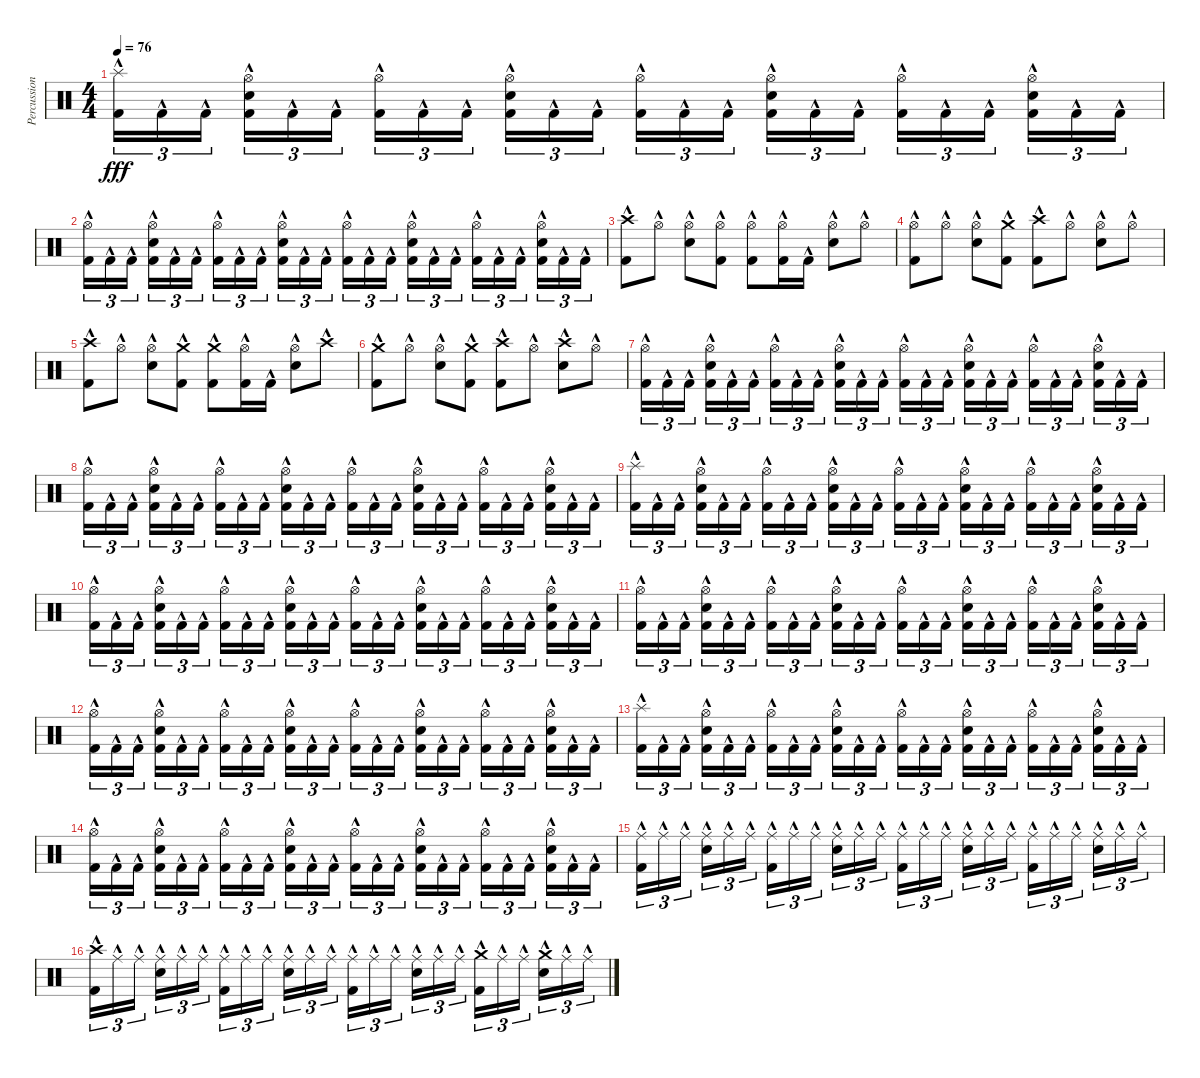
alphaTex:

\track ("Percussion" "Percussion") {instrument percussion}
\staff {score}
\articulation defaults
\ts (4 4)
\tempo 76
\clef neutral
\ks c
("Kick (hit) 2"{hac} "Splash (hit)"{hac}).16{tu (3 2) dy fff} "Kick (hit) 2"{hac}.16{tu (3 2)} "Kick (hit) 2"{hac}.16{tu (3 2) beam splitsecondary} ("Kick (hit) 2"{hac} "Electric Snare (hit)"{hac} "Hi-Hat (open)"{hac}).16{tu (3 2)} "Kick (hit) 2"{hac}.16{tu (3 2)} "Kick (hit) 2"{hac}.16{tu (3 2)} ("Hi-Hat (open)"{hac} "Kick (hit) 2"{hac}).16{tu (3 2)} "Kick (hit) 2"{hac}.16{tu (3 2)} "Kick (hit) 2"{hac}.16{tu (3 2) beam splitsecondary} ("Kick (hit) 2"{hac} "Electric Snare (hit)"{hac} "Hi-Hat (open)"{hac}).16{tu (3 2)} "Kick (hit) 2"{hac}.16{tu (3 2)} "Kick (hit) 2"{hac}.16{tu (3 2)} ("Kick (hit) 2"{hac} "Hi-Hat (open)"{hac}).16{tu (3 2)} "Kick (hit) 2"{hac}.16{tu (3 2)} "Kick (hit) 2"{hac}.16{tu (3 2) beam splitsecondary} ("Kick (hit) 2"{hac} "Electric Snare (hit)"{hac} "Hi-Hat (open)"{hac}).16{tu (3 2)} "Kick (hit) 2"{hac}.16{tu (3 2)} "Kick (hit) 2"{hac}.16{tu (3 2)} ("Hi-Hat (open)"{hac} "Kick (hit) 2"{hac}).16{tu (3 2)} "Kick (hit) 2"{hac}.16{tu (3 2)} "Kick (hit) 2"{hac}.16{tu (3 2) beam splitsecondary} ("Kick (hit) 2"{hac} "Electric Snare (hit)"{hac} "Hi-Hat (open)"{hac}).16{tu (3 2)} "Kick (hit) 2"{hac}.16{tu (3 2)} "Kick (hit) 2"{hac}.16{tu (3 2)} |
("Kick (hit) 2"{hac} "Hi-Hat (open)"{hac}).16{tu (3 2)} "Kick (hit) 2"{hac}.16{tu (3 2)} "Kick (hit) 2"{hac}.16{tu (3 2) beam splitsecondary} ("Kick (hit) 2"{hac} "Electric Snare (hit)"{hac} "Hi-Hat (open)"{hac}).16{tu (3 2)} "Kick (hit) 2"{hac}.16{tu (3 2)} "Kick (hit) 2"{hac}.16{tu (3 2)} ("Hi-Hat (open)"{hac} "Kick (hit) 2"{hac}).16{tu (3 2)} "Kick (hit) 2"{hac}.16{tu (3 2)} "Kick (hit) 2"{hac}.16{tu (3 2) beam splitsecondary} ("Kick (hit) 2"{hac} "Electric Snare (hit)"{hac} "Hi-Hat (open)"{hac}).16{tu (3 2)} "Kick (hit) 2"{hac}.16{tu (3 2)} "Kick (hit) 2"{hac}.16{tu (3 2)} ("Kick (hit) 2"{hac} "Hi-Hat (open)"{hac}).16{tu (3 2)} "Kick (hit) 2"{hac}.16{tu (3 2)} "Kick (hit) 2"{hac}.16{tu (3 2) beam splitsecondary} ("Kick (hit) 2"{hac} "Electric Snare (hit)"{hac} "Hi-Hat (open)"{hac}).16{tu (3 2)} "Kick (hit) 2"{hac}.16{tu (3 2)} "Kick (hit) 2"{hac}.16{tu (3 2)} ("Hi-Hat (open)"{hac} "Kick (hit) 2"{hac}).16{tu (3 2)} "Kick (hit) 2"{hac}.16{tu (3 2)} "Kick (hit) 2"{hac}.16{tu (3 2) beam splitsecondary} ("Kick (hit) 2"{hac} "Electric Snare (hit)"{hac} "Hi-Hat (open)"{hac}).16{tu (3 2)} "Kick (hit) 2"{hac}.16{tu (3 2)} "Kick (hit) 2"{hac}.16{tu (3 2)} |
("Crash high (hit)"{hac} "Kick (hit) 2"{hac}).8 "Hi-Hat (open)"{hac}.8 ("Hi-Hat (open)"{hac} "Electric Snare (hit)"{hac}).8 ("Hi-Hat (open)"{hac} "Kick (hit) 2"{hac}).8 ("Hi-Hat (open)"{hac} "Kick (hit) 2"{hac}).8 ("Hi-Hat (open)"{hac} "Kick (hit) 2"{hac}).16 "Kick (hit) 2"{hac}.16 ("Hi-Hat (open)"{hac} "Electric Snare (hit)"{hac}).8 "Hi-Hat (open)"{hac}.8 |
("Hi-Hat (open)"{hac} "Kick (hit) 2"{hac}).8 "Hi-Hat (open)"{hac}.8 ("Hi-Hat (open)"{hac} "Electric Snare (hit)"{hac}).8 ("Crash medium (hit)"{hac} "Kick (hit) 2"{hac}).8 ("Kick (hit) 2"{hac} "Crash high (hit)"{hac}).8 "Hi-Hat (open)"{hac}.8 ("Hi-Hat (open)"{hac} "Electric Snare (hit)"{hac}).8 "Hi-Hat (open)"{hac}.8 |
("Crash high (hit)"{hac} "Kick (hit) 2"{hac}).8 "Hi-Hat (open)"{hac}.8 ("Hi-Hat (open)"{hac} "Electric Snare (hit)"{hac}).8 ("Crash medium (hit)"{hac} "Kick (hit) 2"{hac}).8 ("Crash medium (hit)"{hac} "Kick (hit) 2"{hac}).8 ("Hi-Hat (open)"{hac} "Kick (hit) 2"{hac}).16 "Kick (hit) 2"{hac}.16 ("Hi-Hat (open)"{hac} "Electric Snare (hit)"{hac}).8 "Crash high (hit)"{hac}.8 |
("Crash medium (hit)"{hac} "Kick (hit) 2"{hac}).8 "Hi-Hat (open)"{hac}.8 ("Hi-Hat (open)"{hac} "Electric Snare (hit)"{hac}).8 ("Crash medium (hit)"{hac} "Kick (hit) 2"{hac}).8 ("Kick (hit) 2"{hac} "Crash high (hit)"{hac}).8 "Hi-Hat (open)"{hac}.8 ("Crash high (hit)"{hac} "Electric Snare (hit)"{hac}).8 "Hi-Hat (open)"{hac}.8 |
("Kick (hit) 2"{hac} "Hi-Hat (open)"{hac}).16{tu (3 2)} "Kick (hit) 2"{hac}.16{tu (3 2)} "Kick (hit) 2"{hac}.16{tu (3 2) beam splitsecondary} ("Kick (hit) 2"{hac} "Electric Snare (hit)"{hac} "Hi-Hat (open)"{hac}).16{tu (3 2)} "Kick (hit) 2"{hac}.16{tu (3 2)} "Kick (hit) 2"{hac}.16{tu (3 2)} ("Hi-Hat (open)"{hac} "Kick (hit) 2"{hac}).16{tu (3 2)} "Kick (hit) 2"{hac}.16{tu (3 2)} "Kick (hit) 2"{hac}.16{tu (3 2) beam splitsecondary} ("Kick (hit) 2"{hac} "Electric Snare (hit)"{hac} "Hi-Hat (open)"{hac}).16{tu (3 2)} "Kick (hit) 2"{hac}.16{tu (3 2)} "Kick (hit) 2"{hac}.16{tu (3 2)} ("Kick (hit) 2"{hac} "Hi-Hat (open)"{hac}).16{tu (3 2)} "Kick (hit) 2"{hac}.16{tu (3 2)} "Kick (hit) 2"{hac}.16{tu (3 2) beam splitsecondary} ("Kick (hit) 2"{hac} "Electric Snare (hit)"{hac} "Hi-Hat (open)"{hac}).16{tu (3 2)} "Kick (hit) 2"{hac}.16{tu (3 2)} "Kick (hit) 2"{hac}.16{tu (3 2)} ("Hi-Hat (open)"{hac} "Kick (hit) 2"{hac}).16{tu (3 2)} "Kick (hit) 2"{hac}.16{tu (3 2)} "Kick (hit) 2"{hac}.16{tu (3 2) beam splitsecondary} ("Kick (hit) 2"{hac} "Electric Snare (hit)"{hac} "Hi-Hat (open)"{hac}).16{tu (3 2)} "Kick (hit) 2"{hac}.16{tu (3 2)} "Kick (hit) 2"{hac}.16{tu (3 2)} |
("Kick (hit) 2"{hac} "Hi-Hat (open)"{hac}).16{tu (3 2)} "Kick (hit) 2"{hac}.16{tu (3 2)} "Kick (hit) 2"{hac}.16{tu (3 2) beam splitsecondary} ("Kick (hit) 2"{hac} "Electric Snare (hit)"{hac} "Hi-Hat (open)"{hac}).16{tu (3 2)} "Kick (hit) 2"{hac}.16{tu (3 2)} "Kick (hit) 2"{hac}.16{tu (3 2)} ("Hi-Hat (open)"{hac} "Kick (hit) 2"{hac}).16{tu (3 2)} "Kick (hit) 2"{hac}.16{tu (3 2)} "Kick (hit) 2"{hac}.16{tu (3 2) beam splitsecondary} ("Kick (hit) 2"{hac} "Electric Snare (hit)"{hac} "Hi-Hat (open)"{hac}).16{tu (3 2)} "Kick (hit) 2"{hac}.16{tu (3 2)} "Kick (hit) 2"{hac}.16{tu (3 2)} ("Kick (hit) 2"{hac} "Hi-Hat (open)"{hac}).16{tu (3 2)} "Kick (hit) 2"{hac}.16{tu (3 2)} "Kick (hit) 2"{hac}.16{tu (3 2) beam splitsecondary} ("Kick (hit) 2"{hac} "Electric Snare (hit)"{hac} "Hi-Hat (open)"{hac}).16{tu (3 2)} "Kick (hit) 2"{hac}.16{tu (3 2)} "Kick (hit) 2"{hac}.16{tu (3 2)} ("Hi-Hat (open)"{hac} "Kick (hit) 2"{hac}).16{tu (3 2)} "Kick (hit) 2"{hac}.16{tu (3 2)} "Kick (hit) 2"{hac}.16{tu (3 2) beam splitsecondary} ("Kick (hit) 2"{hac} "Electric Snare (hit)"{hac} "Hi-Hat (open)"{hac}).16{tu (3 2)} "Kick (hit) 2"{hac}.16{tu (3 2)} "Kick (hit) 2"{hac}.16{tu (3 2)} |
("Kick (hit) 2"{hac} "Splash (hit)"{hac}).16{tu (3 2)} "Kick (hit) 2"{hac}.16{tu (3 2)} "Kick (hit) 2"{hac}.16{tu (3 2) beam splitsecondary} ("Kick (hit) 2"{hac} "Electric Snare (hit)"{hac} "Hi-Hat (open)"{hac}).16{tu (3 2)} "Kick (hit) 2"{hac}.16{tu (3 2)} "Kick (hit) 2"{hac}.16{tu (3 2)} ("Hi-Hat (open)"{hac} "Kick (hit) 2"{hac}).16{tu (3 2)} "Kick (hit) 2"{hac}.16{tu (3 2)} "Kick (hit) 2"{hac}.16{tu (3 2) beam splitsecondary} ("Kick (hit) 2"{hac} "Electric Snare (hit)"{hac} "Hi-Hat (open)"{hac}).16{tu (3 2)} "Kick (hit) 2"{hac}.16{tu (3 2)} "Kick (hit) 2"{hac}.16{tu (3 2)} ("Kick (hit) 2"{hac} "Hi-Hat (open)"{hac}).16{tu (3 2)} "Kick (hit) 2"{hac}.16{tu (3 2)} "Kick (hit) 2"{hac}.16{tu (3 2) beam splitsecondary} ("Kick (hit) 2"{hac} "Electric Snare (hit)"{hac} "Hi-Hat (open)"{hac}).16{tu (3 2)} "Kick (hit) 2"{hac}.16{tu (3 2)} "Kick (hit) 2"{hac}.16{tu (3 2)} ("Hi-Hat (open)"{hac} "Kick (hit) 2"{hac}).16{tu (3 2)} "Kick (hit) 2"{hac}.16{tu (3 2)} "Kick (hit) 2"{hac}.16{tu (3 2) beam splitsecondary} ("Kick (hit) 2"{hac} "Electric Snare (hit)"{hac} "Hi-Hat (open)"{hac}).16{tu (3 2)} "Kick (hit) 2"{hac}.16{tu (3 2)} "Kick (hit) 2"{hac}.16{tu (3 2)} |
("Kick (hit) 2"{hac} "Hi-Hat (open)"{hac}).16{tu (3 2)} "Kick (hit) 2"{hac}.16{tu (3 2)} "Kick (hit) 2"{hac}.16{tu (3 2) beam splitsecondary} ("Kick (hit) 2"{hac} "Electric Snare (hit)"{hac} "Hi-Hat (open)"{hac}).16{tu (3 2)} "Kick (hit) 2"{hac}.16{tu (3 2)} "Kick (hit) 2"{hac}.16{tu (3 2)} ("Hi-Hat (open)"{hac} "Kick (hit) 2"{hac}).16{tu (3 2)} "Kick (hit) 2"{hac}.16{tu (3 2)} "Kick (hit) 2"{hac}.16{tu (3 2) beam splitsecondary} ("Kick (hit) 2"{hac} "Electric Snare (hit)"{hac} "Hi-Hat (open)"{hac}).16{tu (3 2)} "Kick (hit) 2"{hac}.16{tu (3 2)} "Kick (hit) 2"{hac}.16{tu (3 2)} ("Kick (hit) 2"{hac} "Hi-Hat (open)"{hac}).16{tu (3 2)} "Kick (hit) 2"{hac}.16{tu (3 2)} "Kick (hit) 2"{hac}.16{tu (3 2) beam splitsecondary} ("Kick (hit) 2"{hac} "Electric Snare (hit)"{hac} "Hi-Hat (open)"{hac}).16{tu (3 2)} "Kick (hit) 2"{hac}.16{tu (3 2)} "Kick (hit) 2"{hac}.16{tu (3 2)} ("Hi-Hat (open)"{hac} "Kick (hit) 2"{hac}).16{tu (3 2)} "Kick (hit) 2"{hac}.16{tu (3 2)} "Kick (hit) 2"{hac}.16{tu (3 2) beam splitsecondary} ("Kick (hit) 2"{hac} "Electric Snare (hit)"{hac} "Hi-Hat (open)"{hac}).16{tu (3 2)} "Kick (hit) 2"{hac}.16{tu (3 2)} "Kick (hit) 2"{hac}.16{tu (3 2)} |
("Kick (hit) 2"{hac} "Hi-Hat (open)"{hac}).16{tu (3 2)} "Kick (hit) 2"{hac}.16{tu (3 2)} "Kick (hit) 2"{hac}.16{tu (3 2) beam splitsecondary} ("Kick (hit) 2"{hac} "Electric Snare (hit)"{hac} "Hi-Hat (open)"{hac}).16{tu (3 2)} "Kick (hit) 2"{hac}.16{tu (3 2)} "Kick (hit) 2"{hac}.16{tu (3 2)} ("Hi-Hat (open)"{hac} "Kick (hit) 2"{hac}).16{tu (3 2)} "Kick (hit) 2"{hac}.16{tu (3 2)} "Kick (hit) 2"{hac}.16{tu (3 2) beam splitsecondary} ("Kick (hit) 2"{hac} "Electric Snare (hit)"{hac} "Hi-Hat (open)"{hac}).16{tu (3 2)} "Kick (hit) 2"{hac}.16{tu (3 2)} "Kick (hit) 2"{hac}.16{tu (3 2)} ("Kick (hit) 2"{hac} "Hi-Hat (open)"{hac}).16{tu (3 2)} "Kick (hit) 2"{hac}.16{tu (3 2)} "Kick (hit) 2"{hac}.16{tu (3 2) beam splitsecondary} ("Kick (hit) 2"{hac} "Electric Snare (hit)"{hac} "Hi-Hat (open)"{hac}).16{tu (3 2)} "Kick (hit) 2"{hac}.16{tu (3 2)} "Kick (hit) 2"{hac}.16{tu (3 2)} ("Hi-Hat (open)"{hac} "Kick (hit) 2"{hac}).16{tu (3 2)} "Kick (hit) 2"{hac}.16{tu (3 2)} "Kick (hit) 2"{hac}.16{tu (3 2) beam splitsecondary} ("Kick (hit) 2"{hac} "Electric Snare (hit)"{hac} "Hi-Hat (open)"{hac}).16{tu (3 2)} "Kick (hit) 2"{hac}.16{tu (3 2)} "Kick (hit) 2"{hac}.16{tu (3 2)} |
("Kick (hit) 2"{hac} "Hi-Hat (open)"{hac}).16{tu (3 2)} "Kick (hit) 2"{hac}.16{tu (3 2)} "Kick (hit) 2"{hac}.16{tu (3 2) beam splitsecondary} ("Kick (hit) 2"{hac} "Electric Snare (hit)"{hac} "Hi-Hat (open)"{hac}).16{tu (3 2)} "Kick (hit) 2"{hac}.16{tu (3 2)} "Kick (hit) 2"{hac}.16{tu (3 2)} ("Hi-Hat (open)"{hac} "Kick (hit) 2"{hac}).16{tu (3 2)} "Kick (hit) 2"{hac}.16{tu (3 2)} "Kick (hit) 2"{hac}.16{tu (3 2) beam splitsecondary} ("Kick (hit) 2"{hac} "Electric Snare (hit)"{hac} "Hi-Hat (open)"{hac}).16{tu (3 2)} "Kick (hit) 2"{hac}.16{tu (3 2)} "Kick (hit) 2"{hac}.16{tu (3 2)} ("Kick (hit) 2"{hac} "Hi-Hat (open)"{hac}).16{tu (3 2)} "Kick (hit) 2"{hac}.16{tu (3 2)} "Kick (hit) 2"{hac}.16{tu (3 2) beam splitsecondary} ("Kick (hit) 2"{hac} "Electric Snare (hit)"{hac} "Hi-Hat (open)"{hac}).16{tu (3 2)} "Kick (hit) 2"{hac}.16{tu (3 2)} "Kick (hit) 2"{hac}.16{tu (3 2)} ("Hi-Hat (open)"{hac} "Kick (hit) 2"{hac}).16{tu (3 2)} "Kick (hit) 2"{hac}.16{tu (3 2)} "Kick (hit) 2"{hac}.16{tu (3 2) beam splitsecondary} ("Kick (hit) 2"{hac} "Electric Snare (hit)"{hac} "Hi-Hat (open)"{hac}).16{tu (3 2)} "Kick (hit) 2"{hac}.16{tu (3 2)} "Kick (hit) 2"{hac}.16{tu (3 2)} |
("Kick (hit) 2"{hac} "Splash (hit)"{hac}).16{tu (3 2)} "Kick (hit) 2"{hac}.16{tu (3 2)} "Kick (hit) 2"{hac}.16{tu (3 2) beam splitsecondary} ("Kick (hit) 2"{hac} "Electric Snare (hit)"{hac} "Hi-Hat (open)"{hac}).16{tu (3 2)} "Kick (hit) 2"{hac}.16{tu (3 2)} "Kick (hit) 2"{hac}.16{tu (3 2)} ("Hi-Hat (open)"{hac} "Kick (hit) 2"{hac}).16{tu (3 2)} "Kick (hit) 2"{hac}.16{tu (3 2)} "Kick (hit) 2"{hac}.16{tu (3 2) beam splitsecondary} ("Kick (hit) 2"{hac} "Electric Snare (hit)"{hac} "Hi-Hat (open)"{hac}).16{tu (3 2)} "Kick (hit) 2"{hac}.16{tu (3 2)} "Kick (hit) 2"{hac}.16{tu (3 2)} ("Kick (hit) 2"{hac} "Hi-Hat (open)"{hac}).16{tu (3 2)} "Kick (hit) 2"{hac}.16{tu (3 2)} "Kick (hit) 2"{hac}.16{tu (3 2) beam splitsecondary} ("Kick (hit) 2"{hac} "Electric Snare (hit)"{hac} "Hi-Hat (open)"{hac}).16{tu (3 2)} "Kick (hit) 2"{hac}.16{tu (3 2)} "Kick (hit) 2"{hac}.16{tu (3 2)} ("Hi-Hat (open)"{hac} "Kick (hit) 2"{hac}).16{tu (3 2)} "Kick (hit) 2"{hac}.16{tu (3 2)} "Kick (hit) 2"{hac}.16{tu (3 2) beam splitsecondary} ("Kick (hit) 2"{hac} "Electric Snare (hit)"{hac} "Hi-Hat (open)"{hac}).16{tu (3 2)} "Kick (hit) 2"{hac}.16{tu (3 2)} "Kick (hit) 2"{hac}.16{tu (3 2)} |
("Kick (hit) 2"{hac} "Hi-Hat (open)"{hac}).16{tu (3 2)} "Kick (hit) 2"{hac}.16{tu (3 2)} "Kick (hit) 2"{hac}.16{tu (3 2) beam splitsecondary} ("Kick (hit) 2"{hac} "Electric Snare (hit)"{hac} "Hi-Hat (open)"{hac}).16{tu (3 2)} "Kick (hit) 2"{hac}.16{tu (3 2)} "Kick (hit) 2"{hac}.16{tu (3 2)} ("Hi-Hat (open)"{hac} "Kick (hit) 2"{hac}).16{tu (3 2)} "Kick (hit) 2"{hac}.16{tu (3 2)} "Kick (hit) 2"{hac}.16{tu (3 2) beam splitsecondary} ("Kick (hit) 2"{hac} "Electric Snare (hit)"{hac} "Hi-Hat (open)"{hac}).16{tu (3 2)} "Kick (hit) 2"{hac}.16{tu (3 2)} "Kick (hit) 2"{hac}.16{tu (3 2)} ("Kick (hit) 2"{hac} "Hi-Hat (open)"{hac}).16{tu (3 2)} "Kick (hit) 2"{hac}.16{tu (3 2)} "Kick (hit) 2"{hac}.16{tu (3 2) beam splitsecondary} ("Kick (hit) 2"{hac} "Electric Snare (hit)"{hac} "Hi-Hat (open)"{hac}).16{tu (3 2)} "Kick (hit) 2"{hac}.16{tu (3 2)} "Kick (hit) 2"{hac}.16{tu (3 2)} ("Hi-Hat (open)"{hac} "Kick (hit) 2"{hac}).16{tu (3 2)} "Kick (hit) 2"{hac}.16{tu (3 2)} "Kick (hit) 2"{hac}.16{tu (3 2) beam splitsecondary} ("Kick (hit) 2"{hac} "Electric Snare (hit)"{hac} "Hi-Hat (open)"{hac}).16{tu (3 2)} "Kick (hit) 2"{hac}.16{tu (3 2)} "Kick (hit) 2"{hac}.16{tu (3 2)} |
("Ride (middle)"{hac} "Kick (hit) 2"{hac}).16{tu (3 2)} "Ride (middle)"{hac}.16{tu (3 2)} "Ride (middle)"{hac}.16{tu (3 2) beam splitsecondary} ("Ride (middle)"{hac} "Electric Snare (hit)"{hac}).16{tu (3 2)} "Ride (middle)"{hac}.16{tu (3 2)} "Ride (middle)"{hac}.16{tu (3 2)} ("Ride (middle)"{hac} "Kick (hit) 2"{hac}).16{tu (3 2)} "Ride (middle)"{hac}.16{tu (3 2)} "Ride (middle)"{hac}.16{tu (3 2) beam splitsecondary} ("Ride (middle)"{hac} "Electric Snare (hit)"{hac}).16{tu (3 2)} "Ride (middle)"{hac}.16{tu (3 2)} "Ride (middle)"{hac}.16{tu (3 2)} ("Ride (middle)"{hac} "Kick (hit) 2"{hac}).16{tu (3 2)} "Ride (middle)"{hac}.16{tu (3 2)} "Ride (middle)"{hac}.16{tu (3 2) beam splitsecondary} ("Ride (middle)"{hac} "Electric Snare (hit)"{hac}).16{tu (3 2)} "Ride (middle)"{hac}.16{tu (3 2)} "Ride (middle)"{hac}.16{tu (3 2)} ("Ride (middle)"{hac} "Kick (hit) 2"{hac}).16{tu (3 2)} "Ride (middle)"{hac}.16{tu (3 2)} "Ride (middle)"{hac}.16{tu (3 2) beam splitsecondary} ("Ride (middle)"{hac} "Electric Snare (hit)"{hac}).16{tu (3 2)} "Ride (middle)"{hac}.16{tu (3 2)} "Ride (middle)"{hac}.16{tu (3 2)} |
("Crash high (hit)"{hac} "Kick (hit) 2"{hac}).16{tu (3 2)} "Ride (middle)"{hac}.16{tu (3 2)} "Ride (middle)"{hac}.16{tu (3 2) beam splitsecondary} ("Ride (middle)"{hac} "Electric Snare (hit)"{hac}).16{tu (3 2)} "Ride (middle)"{hac}.16{tu (3 2)} "Ride (middle)"{hac}.16{tu (3 2)} ("Ride (middle)"{hac} "Kick (hit) 2"{hac}).16{tu (3 2)} "Ride (middle)"{hac}.16{tu (3 2)} "Ride (middle)"{hac}.16{tu (3 2) beam splitsecondary} ("Ride (middle)"{hac} "Electric Snare (hit)"{hac}).16{tu (3 2)} "Ride (middle)"{hac}.16{tu (3 2)} "Ride (middle)"{hac}.16{tu (3 2)} ("Ride (middle)"{hac} "Kick (hit) 2"{hac}).16{tu (3 2)} "Ride (middle)"{hac}.16{tu (3 2)} "Ride (middle)"{hac}.16{tu (3 2) beam splitsecondary} ("Ride (middle)"{hac} "Electric Snare (hit)"{hac}).16{tu (3 2)} "Ride (middle)"{hac}.16{tu (3 2)} "Ride (middle)"{hac}.16{tu (3 2)} ("Crash medium (hit)"{hac} "Kick (hit) 2"{hac}).16{tu (3 2)} "Ride (middle)"{hac}.16{tu (3 2)} "Ride (middle)"{hac}.16{tu (3 2) beam splitsecondary} ("Crash medium (hit)"{hac} "Electric Snare (hit)"{hac}).16{tu (3 2)} "Ride (middle)"{hac}.16{tu (3 2)} "Ride (middle)"{hac}.16{tu (3 2)}
